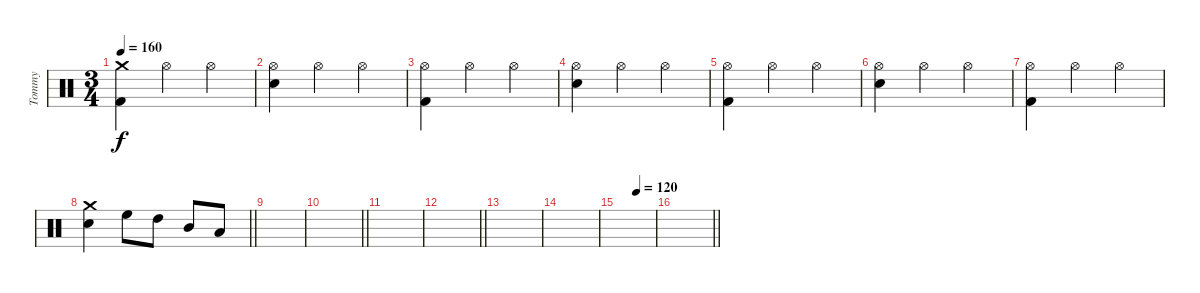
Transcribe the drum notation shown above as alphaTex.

\track ("Tommy" "Tommy") {instrument percussion}
\staff {score}
\articulation defaults
\ts (3 4)
\tempo 160
\clef neutral
\ks c
("Crash medium (hit)" "Kick (hit) 2").4{dy f} "Hi-Hat (open)".4 "Hi-Hat (open)".4 |
("Hi-Hat (open)" "Electric Snare (hit)").4 "Hi-Hat (open)".4 "Hi-Hat (open)".4 |
("Hi-Hat (open)" "Kick (hit) 2").4 "Hi-Hat (open)".4 "Hi-Hat (open)".4 |
("Hi-Hat (open)" "Electric Snare (hit)").4 "Hi-Hat (open)".4 "Hi-Hat (open)".4 |
("Hi-Hat (open)" "Kick (hit) 2").4 "Hi-Hat (open)".4 "Hi-Hat (open)".4 |
("Hi-Hat (open)" "Electric Snare (hit)").4 "Hi-Hat (open)".4 "Hi-Hat (open)".4 |
("Hi-Hat (open)" "Kick (hit) 2").4 "Hi-Hat (open)".4 "Hi-Hat (open)".4 |
\barLineRight lightlight
("Crash medium (hit)" "Electric Snare (hit)").4 "High Floor Tom (hit)".8 "High Tom (hit)".8 "Mid Tom (hit)".8 "Low Tom (hit)".8 |
|
\barLineRight lightlight
|
|
\barLineRight lightlight
|
|
|
\tempo (120 0.5)
|
\barLineRight lightlight
